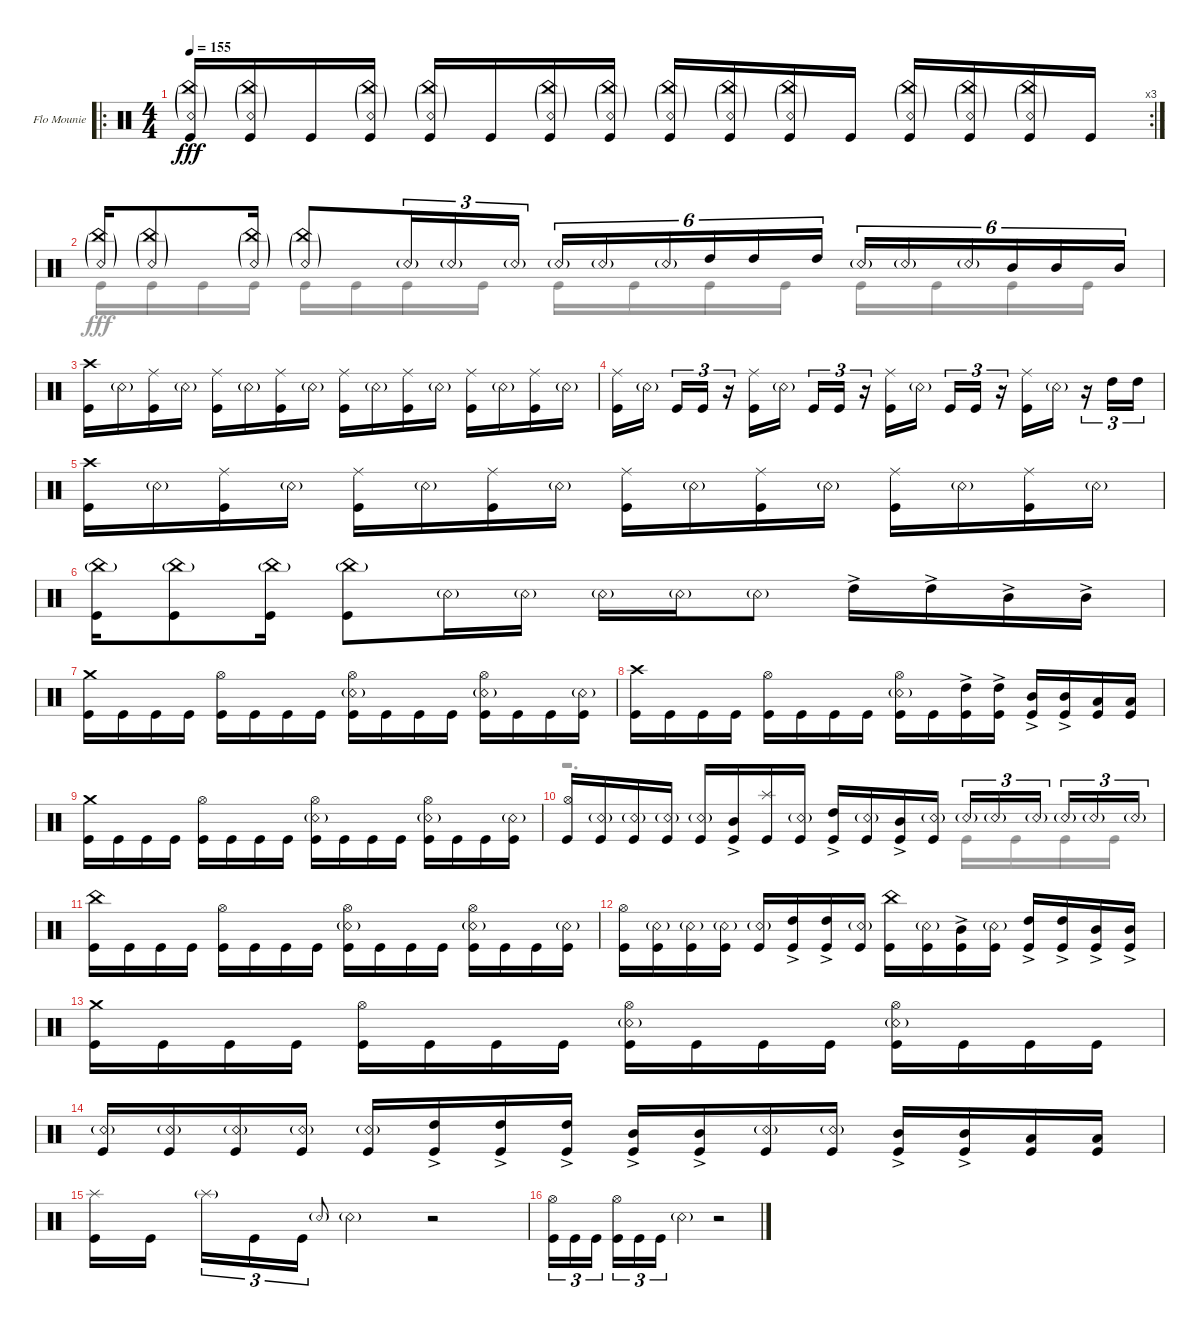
\bracketExtendMode groupsimilarinstruments
\firstSystemTrackNameOrientation horizontal
\otherSystemsTrackNameOrientation horizontal
\track ("Flo Mounier" "Flo Mounie") {instrument percussion}
\staff {score}
\articulation defaults
\voice
\ro
\rc 3
\ts (4 4)
\tempo 155
\clef neutral
\scale
0.240054
\ks c
("Snare (rim shot)"{g} "China (hit)"{g} "Kick (hit)").16{dy fff} ("Snare (rim shot)"{g} "China (hit)"{g} "Kick (hit)").16 "Kick (hit)".16 ("Snare (rim shot)"{g} "China (hit)"{g} "Kick (hit)").16 ("Snare (rim shot)"{g} "China (hit)"{g} "Kick (hit)").16 "Kick (hit)".16 ("Snare (rim shot)"{g} "China (hit)"{g} "Kick (hit)").16 ("Snare (rim shot)"{g} "China (hit)"{g} "Kick (hit)").16 ("Snare (rim shot)"{g} "China (hit)"{g} "Kick (hit)").16 ("Snare (rim shot)"{g} "China (hit)"{g} "Kick (hit)").16 ("Snare (rim shot)"{g} "China (hit)"{g} "Kick (hit)").16 "Kick (hit)".16 ("Snare (rim shot)"{g} "China (hit)"{g} "Kick (hit)").16 ("Snare (rim shot)"{g} "China (hit)"{g} "Kick (hit)").16 ("Snare (rim shot)"{g} "China (hit)"{g} "Kick (hit)").16 "Kick (hit)".16 |
\scale
0.281056 ("Snare (rim shot)"{g} "China (hit)"{g}).16 ("Snare (rim shot)"{g} "China (hit)"{g}).8 ("Snare (rim shot)"{g} "China (hit)"{g}).16 ("Snare (rim shot)"{g} "China (hit)"{g}).8{beam merge} "Snare (rim shot)"{g}.16{tu (3 2)} "Snare (rim shot)"{g}.16{tu (3 2)} "Snare (rim shot)"{g}.16{tu (3 2)} "Snare (rim shot)"{g}.16{tu (6 4)} "Snare (rim shot)"{g}.16{tu (6 4)} "Snare (rim shot)"{g}.16{tu (6 4)} "High Tom (hit)".16{tu (6 4)} "High Tom (hit)".16{tu (6 4)} "High Tom (hit)".16{tu (6 4)} "Snare (rim shot)"{g}.16{tu (6 4)} "Snare (rim shot)"{g}.16{tu (6 4)} "Snare (rim shot)"{g}.16{tu (6 4)} "Mid Tom (hit)".16{tu (6 4)} "Mid Tom (hit)".16{tu (6 4)} "Mid Tom (hit)".16{tu (6 4)} |
("Kick (hit)" "Crash high (hit)").16 "Snare (rim shot)"{g}.16 ("Ride (middle)" "Kick (hit)").16 "Snare (rim shot)"{g}.16 ("Ride (middle)" "Kick (hit)").16 "Snare (rim shot)"{g}.16 ("Ride (middle)" "Kick (hit)").16 "Snare (rim shot)"{g}.16 ("Ride (middle)" "Kick (hit)").16 "Snare (rim shot)"{g}.16 ("Ride (middle)" "Kick (hit)").16 "Snare (rim shot)"{g}.16 ("Ride (middle)" "Kick (hit)").16 "Snare (rim shot)"{g}.16 ("Ride (middle)" "Kick (hit)").16 "Snare (rim shot)"{g}.16 |
("Kick (hit)" "Ride (middle)").16 "Snare (rim shot)"{g}.16 "Kick (hit)".16{tu (3 2)} "Kick (hit)".16{tu (3 2)} r.16{tu (3 2)} ("Kick (hit)" "Ride (middle)").16 "Snare (rim shot)"{g}.16 "Kick (hit)".16{tu (3 2)} "Kick (hit)".16{tu (3 2)} r.16{tu (3 2)} ("Kick (hit)" "Ride (middle)").16 "Snare (rim shot)"{g}.16 "Kick (hit)".16{tu (3 2)} "Kick (hit)".16{tu (3 2)} r.16{tu (3 2)} ("Kick (hit)" "Ride (middle)").16 "Snare (rim shot)"{g}.16 r.16{tu (3 2)} "High Tom (hit)".16{tu (3 2)} "High Tom (hit)".16{tu (3 2)} |
("Kick (hit)" "Crash high (hit)").16 "Snare (rim shot)"{g}.16 ("Ride (middle)" "Kick (hit)").16 "Snare (rim shot)"{g}.16 ("Ride (middle)" "Kick (hit)").16 "Snare (rim shot)"{g}.16 ("Ride (middle)" "Kick (hit)").16 "Snare (rim shot)"{g}.16 ("Ride (middle)" "Kick (hit)").16 "Snare (rim shot)"{g}.16 ("Ride (middle)" "Kick (hit)").16 "Snare (rim shot)"{g}.16 ("Ride (middle)" "Kick (hit)").16 "Snare (rim shot)"{g}.16 ("Ride (middle)" "Kick (hit)").16 "Snare (rim shot)"{g}.16 |
("Kick (hit)" "China (hit)"{g}).16 ("Kick (hit)" "China (hit)"{g}).8 ("Kick (hit)" "China (hit)"{g}).16 ("Kick (hit)" "China (hit)"{g}).8 "Snare (rim shot)"{g}.16 "Snare (rim shot)"{g}.16 "Snare (rim shot)"{g}.16 "Snare (rim shot)"{g}.16 "Snare (rim shot)"{g}.8 "High Tom (hit)"{ac}.16 "High Tom (hit)"{ac}.16 "Mid Tom (hit)"{ac}.16 "Mid Tom (hit)"{ac}.16 |
\scale
0.281235 ("Crash medium (hit)" "Kick (hit)").16 "Kick (hit)".16 "Kick (hit)".16 "Kick (hit)".16 ("Kick (hit)" "Hi-Hat (open)").16 "Kick (hit)".16 "Kick (hit)".16 "Kick (hit)".16 ("Kick (hit)" "Snare (rim shot)"{g} "Hi-Hat (open)").16 "Kick (hit)".16 "Kick (hit)".16 "Kick (hit)".16 ("Kick (hit)" "Hi-Hat (open)" "Snare (rim shot)"{g}).16 "Kick (hit)".16 "Kick (hit)".16 ("Kick (hit)" "Snare (rim shot)"{g}).16 |
\scale
0.245592 ("Kick (hit)" "Crash high (hit)").16 "Kick (hit)".16 "Kick (hit)".16 "Kick (hit)".16 ("Kick (hit)" "Hi-Hat (open)").16 "Kick (hit)".16 "Kick (hit)".16 "Kick (hit)".16 ("Kick (hit)" "Hi-Hat (open)" "Snare (rim shot)"{g}).16 "Kick (hit)".16 ("Kick (hit)" "High Tom (hit)"{ac}).16 ("Kick (hit)" "High Tom (hit)"{ac}).16 ("Kick (hit)" "Mid Tom (hit)"{ac}).16 ("Kick (hit)" "Mid Tom (hit)"{ac}).16 ("Kick (hit)" "Low Tom (hit)").16 ("Kick (hit)" "Low Tom (hit)").16 |
\scale
0.255939 ("Crash medium (hit)" "Kick (hit)").16 "Kick (hit)".16 "Kick (hit)".16 "Kick (hit)".16 ("Kick (hit)" "Hi-Hat (open)").16 "Kick (hit)".16 "Kick (hit)".16 "Kick (hit)".16 ("Kick (hit)" "Snare (rim shot)"{g} "Hi-Hat (open)").16 "Kick (hit)".16 "Kick (hit)".16 "Kick (hit)".16 ("Kick (hit)" "Hi-Hat (open)" "Snare (rim shot)"{g}).16 "Kick (hit)".16 "Kick (hit)".16 ("Kick (hit)" "Snare (rim shot)"{g}).16 |
\scale
0.253022 ("Kick (hit)" "Hi-Hat (open)").16 ("Kick (hit)" "Snare (rim shot)"{g}).16 ("Kick (hit)" "Snare (rim shot)"{g}).16 ("Kick (hit)" "Snare (rim shot)"{g}).16 ("Kick (hit)" "Snare (rim shot)"{g}).16 ("Kick (hit)" "Mid Tom (hit)"{ac}).16 ("Kick (hit)" "Splash (hit)").16 ("Kick (hit)" "Snare (rim shot)"{g}).16 ("Kick (hit)" "High Tom (hit)"{ac}).16 ("Kick (hit)" "Snare (rim shot)"{g}).16 ("Kick (hit)" "Mid Tom (hit)"{ac}).16 ("Kick (hit)" "Snare (rim shot)"{g}).16 "Snare (rim shot)"{g}.16{tu (3 2)} "Snare (rim shot)"{g}.16{tu (3 2)} "Snare (rim shot)"{g}.16{tu (3 2)} "Snare (rim shot)"{g}.16{tu (3 2)} "Snare (rim shot)"{g}.16{tu (3 2)} "Snare (rim shot)"{g}.16{tu (3 2)} |
("Kick (hit)" "China (hit)").16 "Kick (hit)".16 "Kick (hit)".16 "Kick (hit)".16 ("Kick (hit)" "Hi-Hat (open)").16 "Kick (hit)".16 "Kick (hit)".16 "Kick (hit)".16 ("Kick (hit)" "Hi-Hat (open)" "Snare (rim shot)"{g}).16 "Kick (hit)".16 "Kick (hit)".16 "Kick (hit)".16 ("Kick (hit)" "Hi-Hat (open)" "Snare (rim shot)"{g}).16 "Kick (hit)".16 "Kick (hit)".16 ("Kick (hit)" "Snare (rim shot)"{g}).16 |
("Kick (hit)" "Hi-Hat (open)").16 ("Kick (hit)" "Snare (rim shot)"{g}).16 ("Kick (hit)" "Snare (rim shot)"{g}).16 ("Kick (hit)" "Snare (rim shot)"{g}).16 ("Kick (hit)" "Snare (rim shot)"{g}).16 ("Kick (hit)" "High Tom (hit)"{ac}).16 ("Kick (hit)" "High Tom (hit)"{ac}).16 ("Kick (hit)" "Snare (rim shot)"{g}).16 ("Kick (hit)" "China (hit)").16 ("Kick (hit)" "Snare (rim shot)"{g}).16 ("Kick (hit)" "Mid Tom (hit)"{ac}).16 ("Kick (hit)" "Snare (rim shot)"{g}).16 ("Kick (hit)" "High Tom (hit)"{ac}).16 ("Kick (hit)" "High Tom (hit)"{ac}).16 ("Kick (hit)" "Mid Tom (hit)"{ac}).16 ("Kick (hit)" "Mid Tom (hit)"{ac}).16 |
("Kick (hit)" "Crash medium (hit)").16 "Kick (hit)".16 "Kick (hit)".16 "Kick (hit)".16 ("Kick (hit)" "Hi-Hat (open)").16 "Kick (hit)".16 "Kick (hit)".16 "Kick (hit)".16 ("Kick (hit)" "Hi-Hat (open)" "Snare (rim shot)"{g}).16 "Kick (hit)".16 "Kick (hit)".16 "Kick (hit)".16 ("Kick (hit)" "Hi-Hat (open)" "Snare (rim shot)"{g}).16 "Kick (hit)".16 "Kick (hit)".16 "Kick (hit)".16 |
("Kick (hit)" "Snare (rim shot)"{g}).16 ("Kick (hit)" "Snare (rim shot)"{g}).16 ("Kick (hit)" "Snare (rim shot)"{g}).16 ("Kick (hit)" "Snare (rim shot)"{g}).16 ("Kick (hit)" "Snare (rim shot)"{g}).16 ("Kick (hit)" "High Tom (hit)"{ac}).16 ("Kick (hit)" "High Tom (hit)"{ac}).16 ("Kick (hit)" "High Tom (hit)"{ac}).16 ("Kick (hit)" "Mid Tom (hit)"{ac}).16 ("Kick (hit)" "Mid Tom (hit)"{ac}).16 ("Kick (hit)" "Snare (rim shot)"{g}).16 ("Kick (hit)" "Snare (rim shot)"{g}).16 ("Kick (hit)" "Mid Tom (hit)"{ac}).16 ("Kick (hit)" "Mid Tom (hit)"{ac}).16 ("Kick (hit)" "Low Tom (hit)").16 ("Kick (hit)" "Low Tom (hit)").16 |
\scale
0.228778 ("Kick (hit)" "Splash (hit)").16 "Kick (hit)".16 "Splash (hit)"{g}.16{tu (3 2)} "Kick (hit)".16{tu (3 2)} "Kick (hit)".16{tu (3 2)} "Snare (rim shot)"{g}.8{tu (3 2) gr onbeat} "Snare (rim shot)"{g}.4 r.2 |
\scale
0.20939 ("Kick (hit)" "Hi-Hat (open)").16{tu (3 2)} "Kick (hit)".16{tu (3 2)} "Kick (hit)".16{tu (3 2)} ("Kick (hit)" "Hi-Hat (open)").16{tu (3 2)} "Kick (hit)".16{tu (3 2)} "Kick (hit)".16{tu (3 2)} "Snare (rim shot)"{g}.4 r.2
\voice
\clef neutral
\ottava regular
\simile none
\scale
0.240054
\ks c
|
\scale
0.281056 "Kick (hit)".16 "Kick (hit)".16 "Kick (hit)".16 "Kick (hit)".16 "Kick (hit)".16 "Kick (hit)".16 "Kick (hit)".16 "Kick (hit)".16 "Kick (hit)".16 "Kick (hit)".16 "Kick (hit)".16 "Kick (hit)".16 "Kick (hit)".16 "Kick (hit)".16 "Kick (hit)".16 "Kick (hit)".16 |
|
|
|
|
\scale
0.281235 |
\scale
0.245592 |
\scale
0.255939 |
\scale
0.253022 r.2{d} "Kick (hit)".16 "Kick (hit)".16 "Kick (hit)".16 "Kick (hit)".16 |
|
|
|
|
\scale
0.228778 |
\scale
0.20939
